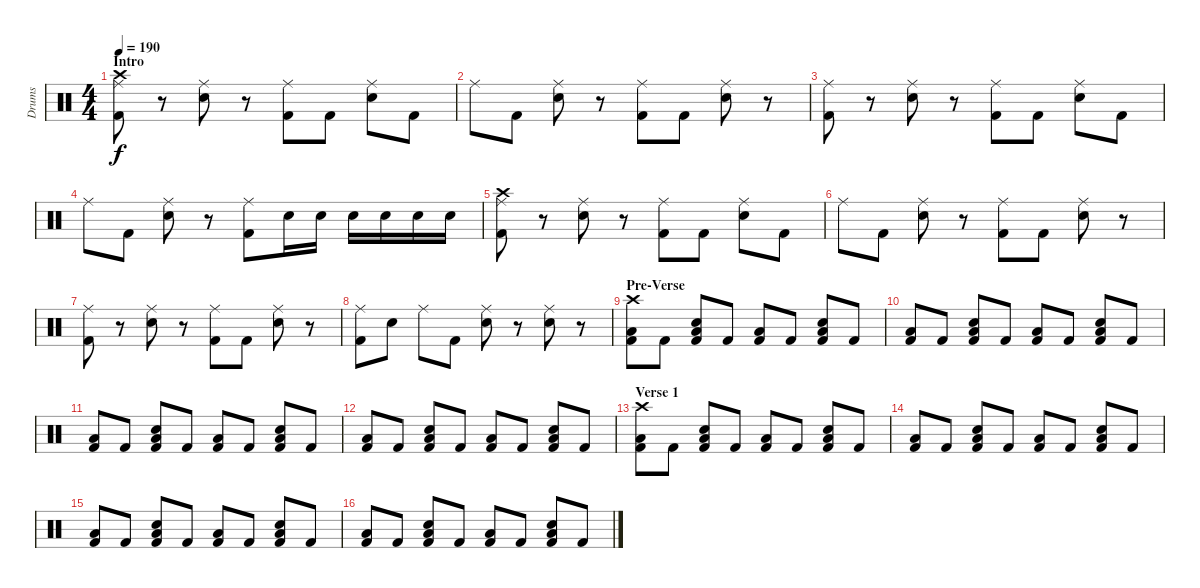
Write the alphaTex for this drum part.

\track ("Drums" "Drums") {instrument percussion}
\staff {score}
\articulation defaults
\ts (4 4)
\section ("" "Intro")
\tempo 190
\clef neutral
\ks c
("Ride (middle)" "Crash high (hit)" "Kick (hit) 2").8{dy f} r.8 ("Ride (middle)" "Snare (hit) 2").8 r.8 ("Ride (middle)" "Kick (hit) 2").8 "Kick (hit) 2".8 ("Ride (middle)" "Snare (hit) 2").8 "Kick (hit) 2".8 |
"Ride (middle)".8 "Kick (hit) 2".8 ("Ride (middle)" "Snare (hit) 2").8 r.8 ("Ride (middle)" "Kick (hit) 2").8 "Kick (hit) 2".8 ("Ride (middle)" "Snare (hit) 2").8 r.8 |
("Ride (middle)" "Kick (hit) 2").8 r.8 ("Ride (middle)" "Snare (hit) 2").8 r.8 ("Ride (middle)" "Kick (hit) 2").8 "Kick (hit) 2".8 ("Ride (middle)" "Snare (hit) 2").8 "Kick (hit) 2".8 |
"Ride (middle)".8 "Kick (hit) 2".8 ("Ride (middle)" "Snare (hit) 2").8 r.8 ("Ride (middle)" "Kick (hit) 2").8 "Snare (hit) 2".16 "Snare (hit) 2".16 "Snare (hit) 2".16 "Snare (hit) 2".16 "Snare (hit) 2".16 "Snare (hit) 2".16 |
("Ride (middle)" "Crash high (hit)" "Kick (hit) 2").8 r.8 ("Ride (middle)" "Snare (hit) 2").8 r.8 ("Ride (middle)" "Kick (hit) 2").8 "Kick (hit) 2".8 ("Ride (middle)" "Snare (hit) 2").8 "Kick (hit) 2".8 |
"Ride (middle)".8 "Kick (hit) 2".8 ("Ride (middle)" "Snare (hit) 2").8 r.8 ("Ride (middle)" "Kick (hit) 2").8 "Kick (hit) 2".8 ("Ride (middle)" "Snare (hit) 2").8 r.8 |
("Ride (middle)" "Kick (hit) 2").8 r.8 ("Ride (middle)" "Snare (hit) 2").8 r.8 ("Ride (middle)" "Kick (hit) 2").8 "Kick (hit) 2".8 ("Ride (middle)" "Snare (hit) 2").8 r.8 |
("Ride (middle)" "Kick (hit) 2").8 "Snare (hit) 2".8 "Ride (middle)".8 "Kick (hit) 2".8 ("Ride (middle)" "Snare (hit) 2").8 r.8 ("Ride (middle)" "Snare (hit) 2").8 r.8 |
\section ("" "Pre-Verse")
("Crash high (hit)" "Low Floor Tom (hit)" "Kick (hit) 2").8 "Kick (hit) 2".8 ("Low Floor Tom (hit)" "Snare (hit) 2" "Kick (hit) 2").8 "Kick (hit) 2".8 ("Low Floor Tom (hit)" "Kick (hit) 2").8 "Kick (hit) 2".8 ("Low Floor Tom (hit)" "Snare (hit) 2" "Kick (hit) 2").8 "Kick (hit) 2".8 |
("Low Floor Tom (hit)" "Kick (hit) 2").8 "Kick (hit) 2".8 ("Low Floor Tom (hit)" "Snare (hit) 2" "Kick (hit) 2").8 "Kick (hit) 2".8 ("Low Floor Tom (hit)" "Kick (hit) 2").8 "Kick (hit) 2".8 ("Low Floor Tom (hit)" "Snare (hit) 2" "Kick (hit) 2").8 "Kick (hit) 2".8 |
("Low Floor Tom (hit)" "Kick (hit) 2").8 "Kick (hit) 2".8 ("Low Floor Tom (hit)" "Snare (hit) 2" "Kick (hit) 2").8 "Kick (hit) 2".8 ("Low Floor Tom (hit)" "Kick (hit) 2").8 "Kick (hit) 2".8 ("Low Floor Tom (hit)" "Snare (hit) 2" "Kick (hit) 2").8 "Kick (hit) 2".8 |
("Low Floor Tom (hit)" "Kick (hit) 2").8 "Kick (hit) 2".8 ("Low Floor Tom (hit)" "Snare (hit) 2" "Kick (hit) 2").8 "Kick (hit) 2".8 ("Low Floor Tom (hit)" "Kick (hit) 2").8 "Kick (hit) 2".8 ("Low Floor Tom (hit)" "Snare (hit) 2" "Kick (hit) 2").8 "Kick (hit) 2".8 |
\section ("" "Verse 1")
("Crash high (hit)" "Low Floor Tom (hit)" "Kick (hit) 2").8 "Kick (hit) 2".8 ("Low Floor Tom (hit)" "Snare (hit) 2" "Kick (hit) 2").8 "Kick (hit) 2".8 ("Low Floor Tom (hit)" "Kick (hit) 2").8 "Kick (hit) 2".8 ("Low Floor Tom (hit)" "Snare (hit) 2" "Kick (hit) 2").8 "Kick (hit) 2".8 |
("Low Floor Tom (hit)" "Kick (hit) 2").8 "Kick (hit) 2".8 ("Low Floor Tom (hit)" "Snare (hit) 2" "Kick (hit) 2").8 "Kick (hit) 2".8 ("Low Floor Tom (hit)" "Kick (hit) 2").8 "Kick (hit) 2".8 ("Low Floor Tom (hit)" "Snare (hit) 2" "Kick (hit) 2").8 "Kick (hit) 2".8 |
("Low Floor Tom (hit)" "Kick (hit) 2").8 "Kick (hit) 2".8 ("Low Floor Tom (hit)" "Snare (hit) 2" "Kick (hit) 2").8 "Kick (hit) 2".8 ("Low Floor Tom (hit)" "Kick (hit) 2").8 "Kick (hit) 2".8 ("Low Floor Tom (hit)" "Snare (hit) 2" "Kick (hit) 2").8 "Kick (hit) 2".8 |
("Low Floor Tom (hit)" "Kick (hit) 2").8 "Kick (hit) 2".8 ("Low Floor Tom (hit)" "Snare (hit) 2" "Kick (hit) 2").8 "Kick (hit) 2".8 ("Low Floor Tom (hit)" "Kick (hit) 2").8 "Kick (hit) 2".8 ("Low Floor Tom (hit)" "Snare (hit) 2" "Kick (hit) 2").8 "Kick (hit) 2".8
